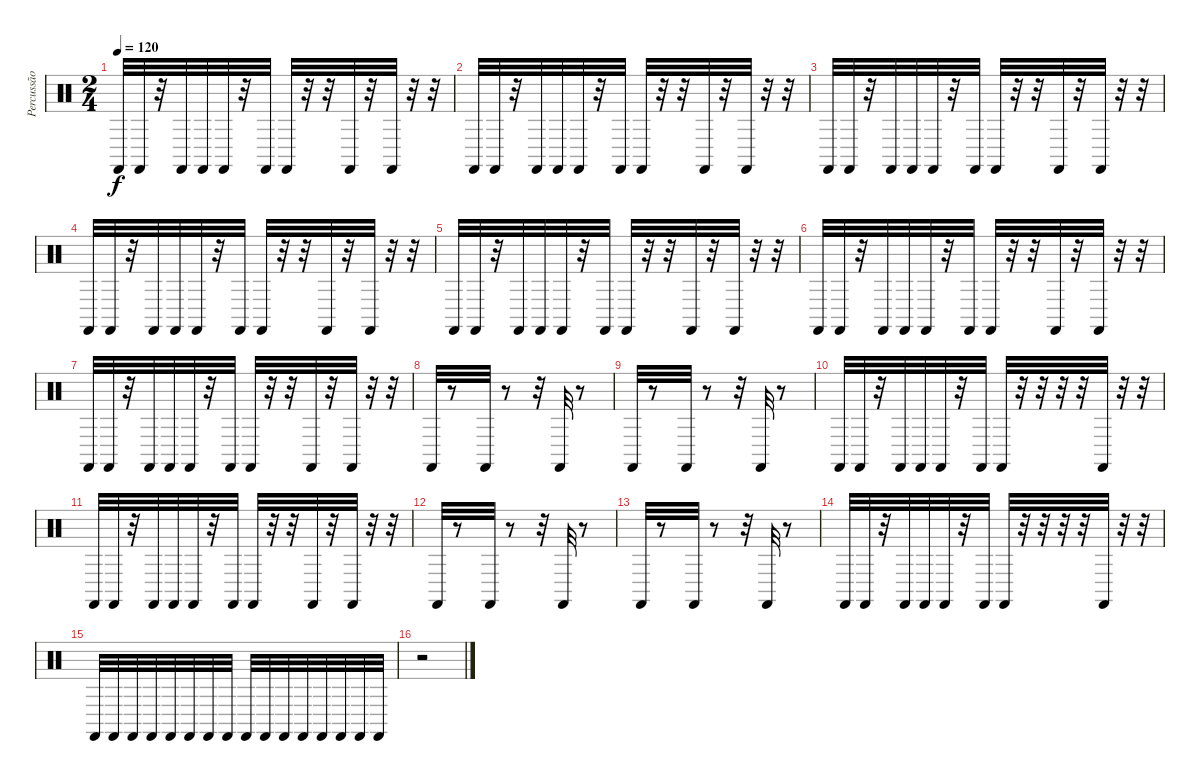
\track ("Percussão" "Percussão") {instrument percussion}
\staff {score}
\articulation defaults
\ts (2 4)
\tempo 120
\clef neutral
\ks c "Castanets (hit)".32{dy f} "Castanets (hit)".32
r.32 "Castanets (hit)".32 "Castanets (hit)".32 "Castanets (hit)".32 r.32 "Castanets (hit)".32 "Castanets (hit)".32 r.32 r.32 "Castanets (hit)".32 r.32 "Castanets (hit)".32 r.32 r.32 |
"Castanets (hit)".32 "Castanets (hit)".32 r.32 "Castanets (hit)".32 "Castanets (hit)".32 "Castanets (hit)".32 r.32 "Castanets (hit)".32 "Castanets (hit)".32 r.32 r.32 "Castanets (hit)".32 r.32 "Castanets (hit)".32 r.32 r.32 |
"Castanets (hit)".32 "Castanets (hit)".32 r.32 "Castanets (hit)".32 "Castanets (hit)".32 "Castanets (hit)".32 r.32 "Castanets (hit)".32 "Castanets (hit)".32 r.32 r.32 "Castanets (hit)".32 r.32 "Castanets (hit)".32 r.32 r.32 |
"Castanets (hit)".32 "Castanets (hit)".32 r.32 "Castanets (hit)".32 "Castanets (hit)".32 "Castanets (hit)".32 r.32 "Castanets (hit)".32 "Castanets (hit)".32 r.32 r.32 "Castanets (hit)".32 r.32 "Castanets (hit)".32 r.32 r.32 |
"Castanets (hit)".32 "Castanets (hit)".32 r.32 "Castanets (hit)".32 "Castanets (hit)".32 "Castanets (hit)".32 r.32 "Castanets (hit)".32 "Castanets (hit)".32 r.32 r.32 "Castanets (hit)".32 r.32 "Castanets (hit)".32 r.32 r.32 |
"Castanets (hit)".32 "Castanets (hit)".32 r.32 "Castanets (hit)".32 "Castanets (hit)".32 "Castanets (hit)".32 r.32 "Castanets (hit)".32 "Castanets (hit)".32 r.32 r.32 "Castanets (hit)".32 r.32 "Castanets (hit)".32 r.32 r.32 |
"Castanets (hit)".32 "Castanets (hit)".32 r.32 "Castanets (hit)".32 "Castanets (hit)".32 "Castanets (hit)".32 r.32 "Castanets (hit)".32 "Castanets (hit)".32 r.32 r.32 "Castanets (hit)".32 r.32 "Castanets (hit)".32 r.32 r.32 |
"Castanets (hit)".32 r.8 "Castanets (hit)".32 r.8 r.32 "Castanets (hit)".32 r.8 |
"Castanets (hit)".32 r.8 "Castanets (hit)".32 r.8 r.32 "Castanets (hit)".32 r.8 |
"Castanets (hit)".32 "Castanets (hit)".32 r.32 "Castanets (hit)".32 "Castanets (hit)".32 "Castanets (hit)".32 r.32 "Castanets (hit)".32 "Castanets (hit)".32 r.32 r.32 r.32 r.32 "Castanets (hit)".32 r.32 r.32 |
"Castanets (hit)".32 "Castanets (hit)".32 r.32 "Castanets (hit)".32 "Castanets (hit)".32 "Castanets (hit)".32 r.32 "Castanets (hit)".32 "Castanets (hit)".32 r.32 r.32 "Castanets (hit)".32 r.32 "Castanets (hit)".32 r.32 r.32 |
"Castanets (hit)".32 r.8 "Castanets (hit)".32 r.8 r.32 "Castanets (hit)".32 r.8 |
"Castanets (hit)".32 r.8 "Castanets (hit)".32 r.8 r.32 "Castanets (hit)".32 r.8 |
"Castanets (hit)".32 "Castanets (hit)".32 r.32 "Castanets (hit)".32 "Castanets (hit)".32 "Castanets (hit)".32 r.32 "Castanets (hit)".32 "Castanets (hit)".32 r.32 r.32 r.32 r.32 "Castanets (hit)".32 r.32 r.32 |
"Castanets (hit)".32 "Castanets (hit)".32 "Castanets (hit)".32 "Castanets (hit)".32 "Castanets (hit)".32 "Castanets (hit)".32 "Castanets (hit)".32 "Castanets (hit)".32 "Castanets (hit)".32 "Castanets (hit)".32 "Castanets (hit)".32 "Castanets (hit)".32 "Castanets (hit)".32 "Castanets (hit)".32 "Castanets (hit)".32 "Castanets (hit)".32 |
r.2
